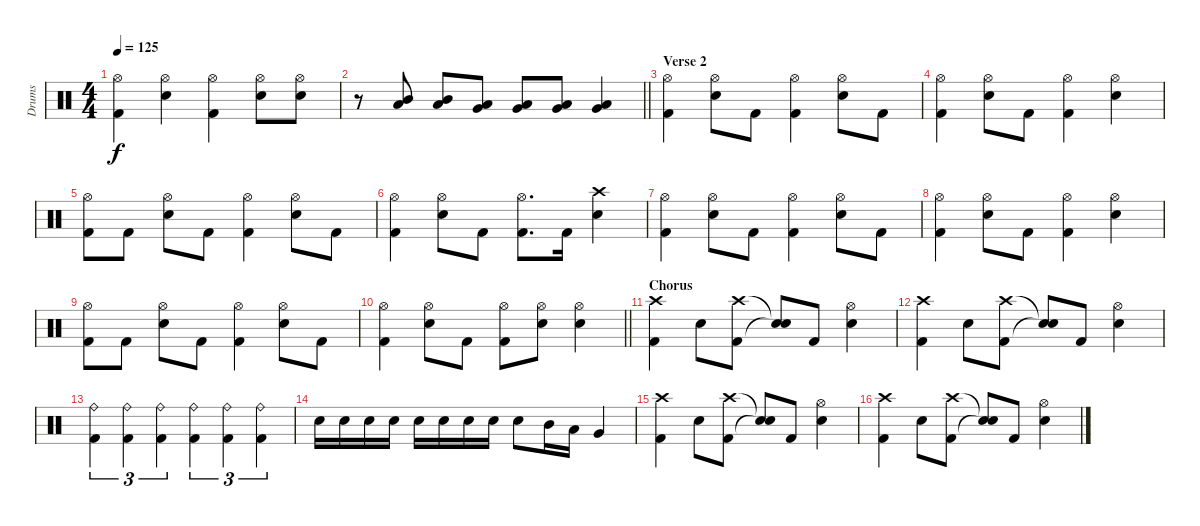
\track ("Drums" "Drums") {instrument percussion}
\staff {score}
\articulation defaults
\ts (4 4)
\tempo 125
\clef neutral
\ks c
("Hi-Hat (open)" "Kick (hit) 2").4{dy f} ("Hi-Hat (open)" "Snare (hit) 2").4 ("Hi-Hat (open)" "Kick (hit) 2").4 ("Hi-Hat (open)" "Snare (hit) 2").8 ("Hi-Hat (open)" "Snare (hit) 2").8 |
\barLineRight lightlight
r.8 ("Mid Tom (hit)" "Low Tom (hit)").8 ("Mid Tom (hit)" "Low Tom (hit)").8 ("Low Tom (hit)" "Very Low Tom (hit)").8 ("Low Tom (hit)" "Very Low Tom (hit)").8 ("Low Tom (hit)" "Very Low Tom (hit)").8 ("Low Tom (hit)" "Very Low Tom (hit)").4 |
\section ("" "Verse 2")
("Hi-Hat (open)" "Kick (hit) 2").4 ("Hi-Hat (open)" "Snare (hit) 2").8 "Kick (hit) 2".8 ("Hi-Hat (open)" "Kick (hit) 2").4 ("Hi-Hat (open)" "Snare (hit) 2").8 "Kick (hit) 2".8 |
("Hi-Hat (open)" "Kick (hit) 2").4 ("Hi-Hat (open)" "Snare (hit) 2").8 "Kick (hit) 2".8 ("Hi-Hat (open)" "Kick (hit) 2").4 ("Hi-Hat (open)" "Snare (hit) 2").4 |
("Hi-Hat (open)" "Kick (hit) 2").8 "Kick (hit) 2".8 ("Hi-Hat (open)" "Snare (hit) 2").8 "Kick (hit) 2".8 ("Hi-Hat (open)" "Kick (hit) 2").4 ("Hi-Hat (open)" "Snare (hit) 2").8 "Kick (hit) 2".8 |
("Hi-Hat (open)" "Kick (hit) 2").4 ("Hi-Hat (open)" "Snare (hit) 2").8 "Kick (hit) 2".8 ("Hi-Hat (open)" "Kick (hit) 2").8{d} "Kick (hit) 2".16 ("Crash high (hit)" "Snare (hit) 2").4 |
("Hi-Hat (open)" "Kick (hit) 2").4 ("Hi-Hat (open)" "Snare (hit) 2").8 "Kick (hit) 2".8 ("Hi-Hat (open)" "Kick (hit) 2").4 ("Hi-Hat (open)" "Snare (hit) 2").8 "Kick (hit) 2".8 |
("Hi-Hat (open)" "Kick (hit) 2").4 ("Hi-Hat (open)" "Snare (hit) 2").8 "Kick (hit) 2".8 ("Hi-Hat (open)" "Kick (hit) 2").4 ("Hi-Hat (open)" "Snare (hit) 2").4 |
("Hi-Hat (open)" "Kick (hit) 2").8 "Kick (hit) 2".8 ("Hi-Hat (open)" "Snare (hit) 2").8 "Kick (hit) 2".8 ("Hi-Hat (open)" "Kick (hit) 2").4 ("Hi-Hat (open)" "Snare (hit) 2").8 "Kick (hit) 2".8 |
\barLineRight lightlight
("Hi-Hat (open)" "Kick (hit) 2").4 ("Hi-Hat (open)" "Snare (hit) 2").8 "Kick (hit) 2".8 ("Hi-Hat (open)" "Kick (hit) 2").8 ("Hi-Hat (open)" "Snare (hit) 2").8 ("Hi-Hat (open)" "Snare (hit) 2").4 |
\section ("" "Chorus")
("Crash high (hit)" "Kick (hit) 2").4 "Snare (hit) 2".8 ("Crash high (hit)" "Kick (hit) 2").8 ("Snare (hit)"{t} "Snare (hit)"{t}).8 "Kick (hit) 2".8 ("Hi-Hat (open)" "Snare (hit) 2").4 |
("Crash high (hit)" "Kick (hit) 2").4 "Snare (hit) 2".8 ("Crash high (hit)" "Kick (hit) 2").8 ("Snare (hit)"{t} "Snare (hit)"{t}).8 "Kick (hit) 2".8 ("Hi-Hat (open)" "Snare (hit) 2").4 |
("Ride (bell)" "Kick (hit) 2").4{tu (3 2)} ("Ride (bell)" "Kick (hit) 2").4{tu (3 2)} ("Ride (bell)" "Kick (hit) 2").4{tu (3 2)} ("Ride (bell)" "Kick (hit) 2").4{tu (3 2)} ("Ride (bell)" "Kick (hit) 2").4{tu (3 2)} ("Ride (bell)" "Kick (hit) 2").4{tu (3 2)} |
"Snare (hit) 2".16 "Snare (hit) 2".16 "Snare (hit) 2".16 "Snare (hit) 2".16 "Snare (hit) 2".16 "Snare (hit) 2".16 "Snare (hit) 2".16 "Snare (hit) 2".16 "Snare (hit) 2".8 "Mid Tom (hit)".16 "Low Tom (hit)".16 "Very Low Tom (hit)".4 |
("Crash high (hit)" "Kick (hit) 2").4 "Snare (hit) 2".8 ("Crash high (hit)" "Kick (hit) 2").8 ("Snare (hit)"{t} "Snare (hit)"{t}).8 "Kick (hit) 2".8 ("Hi-Hat (open)" "Snare (hit) 2").4 |
("Crash high (hit)" "Kick (hit) 2").4 "Snare (hit) 2".8 ("Crash high (hit)" "Kick (hit) 2").8 ("Snare (hit)"{t} "Snare (hit)"{t}).8 "Kick (hit) 2".8 ("Hi-Hat (open)" "Snare (hit) 2").4
